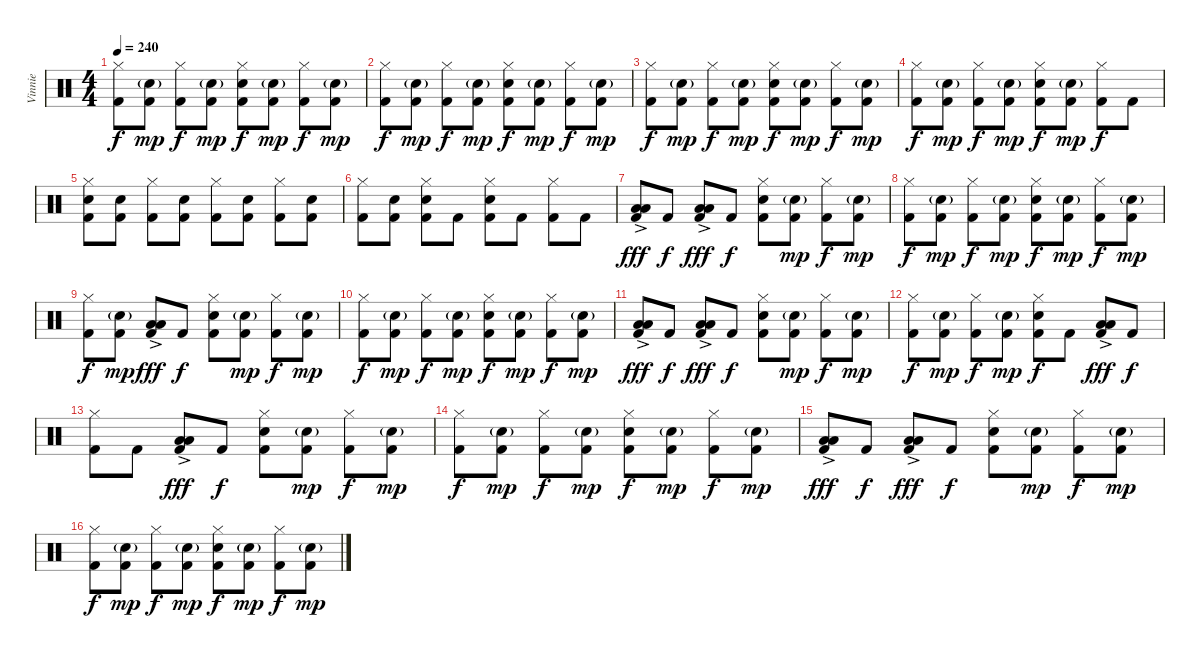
\track ("Vinnie" "Vinnie") {instrument percussion}
\staff {score}
\articulation defaults
\ts (4 4)
\tempo 240
\clef neutral
\ks c
("Hi-Hat (closed)" "Kick (hit) 2").8{dy f} ("Electric Snare (hit)"{g} "Kick (hit) 2").8{dy mp} ("Hi-Hat (closed)" "Kick (hit) 2").8{dy f} ("Electric Snare (hit)"{g} "Kick (hit) 2").8{dy mp} ("Hi-Hat (closed)" "Electric Snare (hit)" "Kick (hit) 2").8{dy f} ("Electric Snare (hit)"{g} "Kick (hit) 2").8{dy mp} ("Hi-Hat (closed)" "Kick (hit) 2").8{dy f} ("Electric Snare (hit)"{g} "Kick (hit) 2").8{dy mp} |
("Hi-Hat (closed)" "Kick (hit) 2").8{dy f} ("Electric Snare (hit)"{g} "Kick (hit) 2").8{dy mp} ("Hi-Hat (closed)" "Kick (hit) 2").8{dy f} ("Electric Snare (hit)"{g} "Kick (hit) 2").8{dy mp} ("Hi-Hat (closed)" "Electric Snare (hit)" "Kick (hit) 2").8{dy f} ("Electric Snare (hit)"{g} "Kick (hit) 2").8{dy mp} ("Hi-Hat (closed)" "Kick (hit) 2").8{dy f} ("Electric Snare (hit)"{g} "Kick (hit) 2").8{dy mp} |
("Hi-Hat (closed)" "Kick (hit) 2").8{dy f} ("Electric Snare (hit)"{g} "Kick (hit) 2").8{dy mp} ("Hi-Hat (closed)" "Kick (hit) 2").8{dy f} ("Electric Snare (hit)"{g} "Kick (hit) 2").8{dy mp} ("Hi-Hat (closed)" "Electric Snare (hit)" "Kick (hit) 2").8{dy f} ("Electric Snare (hit)"{g} "Kick (hit) 2").8{dy mp} ("Hi-Hat (closed)" "Kick (hit) 2").8{dy f} ("Electric Snare (hit)"{g} "Kick (hit) 2").8{dy mp} |
("Hi-Hat (closed)" "Kick (hit) 2").8{dy f} ("Electric Snare (hit)"{g} "Kick (hit) 2").8{dy mp} ("Hi-Hat (closed)" "Kick (hit) 2").8{dy f} ("Electric Snare (hit)"{g} "Kick (hit) 2").8{dy mp} ("Hi-Hat (closed)" "Electric Snare (hit)" "Kick (hit) 2").8{dy f} ("Electric Snare (hit)"{g} "Kick (hit) 2").8{dy mp} ("Hi-Hat (closed)" "Kick (hit) 2").8{dy f} "Kick (hit) 2".8 |
("Hi-Hat (closed)" "Electric Snare (hit)" "Kick (hit) 2").8 ("Electric Snare (hit)" "Kick (hit) 2").8 ("Hi-Hat (closed)" "Kick (hit) 2").8 ("Electric Snare (hit)" "Kick (hit) 2").8 ("Hi-Hat (closed)" "Kick (hit) 2").8 ("Electric Snare (hit)" "Kick (hit) 2").8 ("Hi-Hat (closed)" "Kick (hit) 2").8 ("Electric Snare (hit)" "Kick (hit) 2").8 |
("Hi-Hat (closed)" "Kick (hit) 2").8 ("Electric Snare (hit)" "Kick (hit) 2").8 ("Hi-Hat (closed)" "Electric Snare (hit)" "Kick (hit) 2").8 "Kick (hit) 2".8 ("Hi-Hat (closed)" "Electric Snare (hit)" "Kick (hit) 2").8 "Kick (hit) 2".8 ("Hi-Hat (closed)" "Kick (hit) 2").8 "Kick (hit) 2".8 |
("Low Tom (hit)"{ac} "Low Tom (hit)"{ac} "Kick (hit) 2").8{dy fff} "Kick (hit) 2".8{dy f} ("Low Tom (hit)"{ac} "Low Tom (hit)"{ac} "Kick (hit) 2").8{dy fff} "Kick (hit) 2".8{dy f} ("Hi-Hat (closed)" "Electric Snare (hit)" "Kick (hit) 2").8 ("Electric Snare (hit)"{g} "Kick (hit) 2").8{dy mp} ("Hi-Hat (closed)" "Kick (hit) 2").8{dy f} ("Electric Snare (hit)"{g} "Kick (hit) 2").8{dy mp} |
("Hi-Hat (closed)" "Kick (hit) 2").8{dy f} ("Electric Snare (hit)"{g} "Kick (hit) 2").8{dy mp} ("Hi-Hat (closed)" "Kick (hit) 2").8{dy f} ("Electric Snare (hit)"{g} "Kick (hit) 2").8{dy mp} ("Hi-Hat (closed)" "Electric Snare (hit)" "Kick (hit) 2").8{dy f} ("Electric Snare (hit)"{g} "Kick (hit) 2").8{dy mp} ("Hi-Hat (closed)" "Kick (hit) 2").8{dy f} ("Electric Snare (hit)"{g} "Kick (hit) 2").8{dy mp} |
("Hi-Hat (closed)" "Kick (hit) 2").8{dy f} ("Electric Snare (hit)"{g} "Kick (hit) 2").8{dy mp} ("Low Tom (hit)"{ac} "Low Tom (hit)"{ac} "Kick (hit) 2").8{dy fff} "Kick (hit) 2".8{dy f} ("Hi-Hat (closed)" "Electric Snare (hit)" "Kick (hit) 2").8 ("Electric Snare (hit)"{g} "Kick (hit) 2").8{dy mp} ("Hi-Hat (closed)" "Kick (hit) 2").8{dy f} ("Electric Snare (hit)"{g} "Kick (hit) 2").8{dy mp} |
("Hi-Hat (closed)" "Kick (hit) 2").8{dy f} ("Electric Snare (hit)"{g} "Kick (hit) 2").8{dy mp} ("Hi-Hat (closed)" "Kick (hit) 2").8{dy f} ("Electric Snare (hit)"{g} "Kick (hit) 2").8{dy mp} ("Hi-Hat (closed)" "Electric Snare (hit)" "Kick (hit) 2").8{dy f} ("Electric Snare (hit)"{g} "Kick (hit) 2").8{dy mp} ("Hi-Hat (closed)" "Kick (hit) 2").8{dy f} ("Electric Snare (hit)"{g} "Kick (hit) 2").8{dy mp} |
("Low Tom (hit)"{ac} "Low Tom (hit)"{ac} "Kick (hit) 2").8{dy fff} "Kick (hit) 2".8{dy f} ("Low Tom (hit)"{ac} "Low Tom (hit)"{ac} "Kick (hit) 2").8{dy fff} "Kick (hit) 2".8{dy f} ("Hi-Hat (closed)" "Electric Snare (hit)" "Kick (hit) 2").8 ("Electric Snare (hit)"{g} "Kick (hit) 2").8{dy mp} ("Hi-Hat (closed)" "Kick (hit) 2").8{dy f} ("Electric Snare (hit)"{g} "Kick (hit) 2").8{dy mp} |
("Hi-Hat (closed)" "Kick (hit) 2").8{dy f} ("Electric Snare (hit)"{g} "Kick (hit) 2").8{dy mp} ("Hi-Hat (closed)" "Kick (hit) 2").8{dy f} ("Electric Snare (hit)"{g} "Kick (hit) 2").8{dy mp} ("Hi-Hat (closed)" "Electric Snare (hit)" "Kick (hit) 2").8{dy f} "Kick (hit) 2".8 ("Low Tom (hit)"{ac} "Low Tom (hit)"{ac} "Kick (hit) 2").8{dy fff} "Kick (hit) 2".8{dy f} |
("Hi-Hat (closed)" "Kick (hit) 2").8 "Kick (hit) 2".8 ("Low Tom (hit)"{ac} "Low Tom (hit)"{ac} "Kick (hit) 2").8{dy fff} "Kick (hit) 2".8{dy f} ("Hi-Hat (closed)" "Electric Snare (hit)" "Kick (hit) 2").8 ("Electric Snare (hit)"{g} "Kick (hit) 2").8{dy mp} ("Hi-Hat (closed)" "Kick (hit) 2").8{dy f} ("Electric Snare (hit)"{g} "Kick (hit) 2").8{dy mp} |
("Hi-Hat (closed)" "Kick (hit) 2").8{dy f} ("Electric Snare (hit)"{g} "Kick (hit) 2").8{dy mp} ("Hi-Hat (closed)" "Kick (hit) 2").8{dy f} ("Electric Snare (hit)"{g} "Kick (hit) 2").8{dy mp} ("Hi-Hat (closed)" "Electric Snare (hit)" "Kick (hit) 2").8{dy f} ("Electric Snare (hit)"{g} "Kick (hit) 2").8{dy mp} ("Hi-Hat (closed)" "Kick (hit) 2").8{dy f} ("Electric Snare (hit)"{g} "Kick (hit) 2").8{dy mp} |
("Low Tom (hit)"{ac} "Low Tom (hit)"{ac} "Kick (hit) 2").8{dy fff} "Kick (hit) 2".8{dy f} ("Low Tom (hit)"{ac} "Low Tom (hit)"{ac} "Kick (hit) 2").8{dy fff} "Kick (hit) 2".8{dy f} ("Hi-Hat (closed)" "Electric Snare (hit)" "Kick (hit) 2").8 ("Electric Snare (hit)"{g} "Kick (hit) 2").8{dy mp} ("Hi-Hat (closed)" "Kick (hit) 2").8{dy f} ("Electric Snare (hit)"{g} "Kick (hit) 2").8{dy mp} |
("Hi-Hat (closed)" "Kick (hit) 2").8{dy f} ("Electric Snare (hit)"{g} "Kick (hit) 2").8{dy mp} ("Hi-Hat (closed)" "Kick (hit) 2").8{dy f} ("Electric Snare (hit)"{g} "Kick (hit) 2").8{dy mp} ("Hi-Hat (closed)" "Electric Snare (hit)" "Kick (hit) 2").8{dy f} ("Electric Snare (hit)"{g} "Kick (hit) 2").8{dy mp} ("Hi-Hat (closed)" "Kick (hit) 2").8{dy f} ("Electric Snare (hit)"{g} "Kick (hit) 2").8{dy mp}
